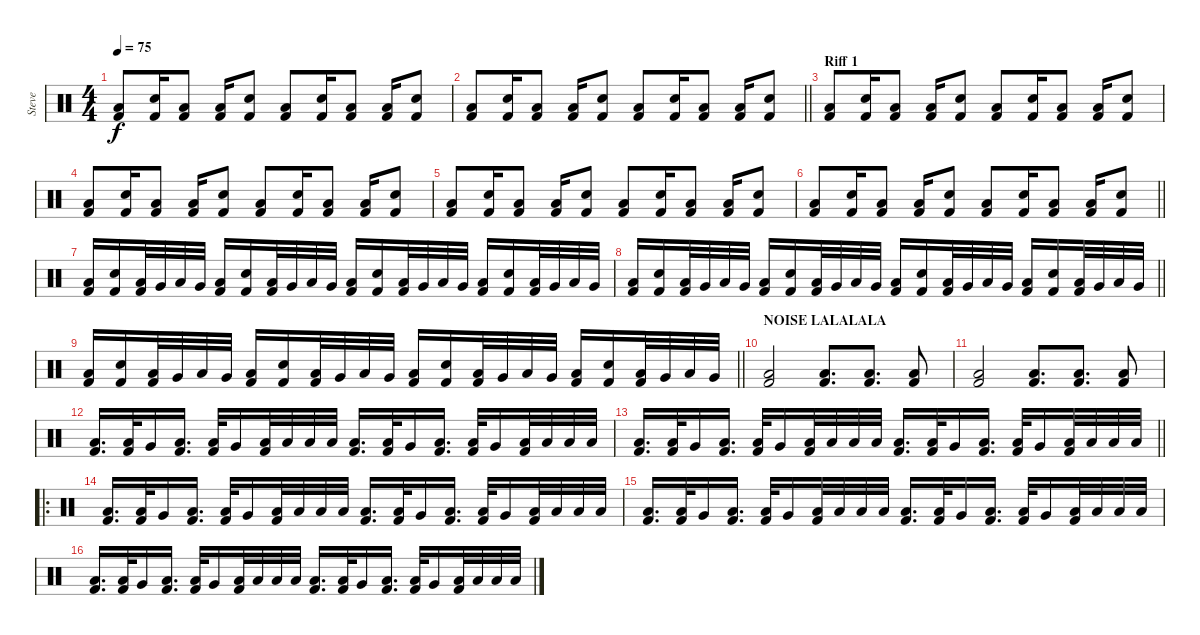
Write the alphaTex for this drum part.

\track ("Steve" "Steve") {instrument percussion}
\staff {score}
\articulation defaults
\ts (4 4)
\tempo 75
\clef neutral
\ks c
("Kick (hit) 2" "Low Floor Tom (hit)").8{dy f} ("Kick (hit) 2" "Snare (hit) 2").16 ("Kick (hit) 2" "Low Floor Tom (hit)").8 ("Kick (hit) 2" "Low Floor Tom (hit)").16 ("Kick (hit) 2" "Snare (hit) 2").8 ("Kick (hit) 2" "Low Floor Tom (hit)").8 ("Kick (hit) 2" "Snare (hit) 2").16 ("Kick (hit) 2" "Low Floor Tom (hit)").8 ("Kick (hit) 2" "Low Floor Tom (hit)").16 ("Kick (hit) 2" "Snare (hit) 2").8 |
\barLineRight lightlight
("Kick (hit) 2" "Low Floor Tom (hit)").8 ("Kick (hit) 2" "Snare (hit) 2").16 ("Kick (hit) 2" "Low Floor Tom (hit)").8 ("Kick (hit) 2" "Low Floor Tom (hit)").16 ("Kick (hit) 2" "Snare (hit) 2").8 ("Kick (hit) 2" "Low Floor Tom (hit)").8 ("Kick (hit) 2" "Snare (hit) 2").16 ("Kick (hit) 2" "Low Floor Tom (hit)").8 ("Kick (hit) 2" "Low Floor Tom (hit)").16 ("Kick (hit) 2" "Snare (hit) 2").8 |
\section ("" "Riff 1")
("Kick (hit) 2" "Low Floor Tom (hit)").8 ("Kick (hit) 2" "Snare (hit) 2").16 ("Kick (hit) 2" "Low Floor Tom (hit)").8 ("Kick (hit) 2" "Low Floor Tom (hit)").16 ("Kick (hit) 2" "Snare (hit) 2").8 ("Kick (hit) 2" "Low Floor Tom (hit)").8 ("Kick (hit) 2" "Snare (hit) 2").16 ("Kick (hit) 2" "Low Floor Tom (hit)").8 ("Kick (hit) 2" "Low Floor Tom (hit)").16 ("Kick (hit) 2" "Snare (hit) 2").8 |
("Kick (hit) 2" "Low Floor Tom (hit)").8 ("Kick (hit) 2" "Snare (hit) 2").16 ("Kick (hit) 2" "Low Floor Tom (hit)").8 ("Kick (hit) 2" "Low Floor Tom (hit)").16 ("Kick (hit) 2" "Snare (hit) 2").8 ("Kick (hit) 2" "Low Floor Tom (hit)").8 ("Kick (hit) 2" "Snare (hit) 2").16 ("Kick (hit) 2" "Low Floor Tom (hit)").8 ("Kick (hit) 2" "Low Floor Tom (hit)").16 ("Kick (hit) 2" "Snare (hit) 2").8 |
("Kick (hit) 2" "Low Floor Tom (hit)").8 ("Kick (hit) 2" "Snare (hit) 2").16 ("Kick (hit) 2" "Low Floor Tom (hit)").8 ("Kick (hit) 2" "Low Floor Tom (hit)").16 ("Kick (hit) 2" "Snare (hit) 2").8 ("Kick (hit) 2" "Low Floor Tom (hit)").8 ("Kick (hit) 2" "Snare (hit) 2").16 ("Kick (hit) 2" "Low Floor Tom (hit)").8 ("Kick (hit) 2" "Low Floor Tom (hit)").16 ("Kick (hit) 2" "Snare (hit) 2").8 |
\barLineRight lightlight
("Kick (hit) 2" "Low Floor Tom (hit)").8 ("Kick (hit) 2" "Snare (hit) 2").16 ("Kick (hit) 2" "Low Floor Tom (hit)").8 ("Kick (hit) 2" "Low Floor Tom (hit)").16 ("Kick (hit) 2" "Snare (hit) 2").8 ("Kick (hit) 2" "Low Floor Tom (hit)").8 ("Kick (hit) 2" "Snare (hit) 2").16 ("Kick (hit) 2" "Low Floor Tom (hit)").8 ("Kick (hit) 2" "Low Floor Tom (hit)").16 ("Kick (hit) 2" "Snare (hit) 2").8 |
("Kick (hit) 2" "Low Floor Tom (hit)").16 ("Kick (hit) 2" "Snare (hit) 2").16 ("Kick (hit) 2" "Low Tom (hit)").32 "Very Low Tom (hit)".32 "Low Floor Tom (hit)".32 "Very Low Tom (hit)".32 ("Kick (hit) 2" "Low Floor Tom (hit)").16 ("Kick (hit) 2" "Snare (hit) 2").16 ("Kick (hit) 2" "Low Tom (hit)").32 "Very Low Tom (hit)".32 "Low Floor Tom (hit)".32 "Very Low Tom (hit)".32 ("Kick (hit) 2" "Low Floor Tom (hit)").16 ("Kick (hit) 2" "Snare (hit) 2").16 ("Kick (hit) 2" "Low Tom (hit)").32 "Very Low Tom (hit)".32 "Low Floor Tom (hit)".32 "Very Low Tom (hit)".32 ("Kick (hit) 2" "Low Floor Tom (hit)").16 ("Kick (hit) 2" "Snare (hit) 2").16 ("Kick (hit) 2" "Low Tom (hit)").32 "Very Low Tom (hit)".32 "Low Floor Tom (hit)".32 "Very Low Tom (hit)".32 |
\barLineRight lightlight
("Kick (hit) 2" "Low Floor Tom (hit)").16 ("Kick (hit) 2" "Snare (hit) 2").16 ("Kick (hit) 2" "Low Tom (hit)").32 "Very Low Tom (hit)".32 "Low Floor Tom (hit)".32 "Very Low Tom (hit)".32 ("Kick (hit) 2" "Low Floor Tom (hit)").16 ("Kick (hit) 2" "Snare (hit) 2").16 ("Kick (hit) 2" "Low Tom (hit)").32 "Very Low Tom (hit)".32 "Low Floor Tom (hit)".32 "Very Low Tom (hit)".32 ("Kick (hit) 2" "Low Floor Tom (hit)").16 ("Kick (hit) 2" "Snare (hit) 2").16 ("Kick (hit) 2" "Low Tom (hit)").32 "Very Low Tom (hit)".32 "Low Floor Tom (hit)".32 "Very Low Tom (hit)".32 ("Kick (hit) 2" "Low Floor Tom (hit)").16 ("Kick (hit) 2" "Snare (hit) 2").16 ("Kick (hit) 2" "Low Tom (hit)").32 "Very Low Tom (hit)".32 "Low Floor Tom (hit)".32 "Very Low Tom (hit)".32 |
\barLineRight lightlight
("Kick (hit) 2" "Low Floor Tom (hit)").16 ("Kick (hit) 2" "Snare (hit) 2").16 ("Kick (hit) 2" "Low Tom (hit)").32 "Very Low Tom (hit)".32 "Low Floor Tom (hit)".32 "Very Low Tom (hit)".32 ("Kick (hit) 2" "Low Floor Tom (hit)").16 ("Kick (hit) 2" "Snare (hit) 2").16 ("Kick (hit) 2" "Low Tom (hit)").32 "Very Low Tom (hit)".32 "Low Floor Tom (hit)".32 "Very Low Tom (hit)".32 ("Kick (hit) 2" "Low Floor Tom (hit)").16 ("Kick (hit) 2" "Snare (hit) 2").16 ("Kick (hit) 2" "Low Tom (hit)").32 "Very Low Tom (hit)".32 "Low Floor Tom (hit)".32 "Very Low Tom (hit)".32 ("Kick (hit) 2" "Low Floor Tom (hit)").16 ("Kick (hit) 2" "Snare (hit) 2").16 ("Kick (hit) 2" "Low Tom (hit)").32 "Very Low Tom (hit)".32 "Low Floor Tom (hit)".32 "Very Low Tom (hit)".32 |
\section ("" "NOISE LALALALA")
("Kick (hit) 2" "Low Floor Tom (hit)").2 ("Kick (hit) 2" "Low Floor Tom (hit)").8{d} ("Kick (hit) 2" "Low Floor Tom (hit)").8{d} ("Kick (hit) 2" "Low Floor Tom (hit)").8 |
("Kick (hit) 2" "Low Floor Tom (hit)").2 ("Kick (hit) 2" "Low Floor Tom (hit)").8{d} ("Kick (hit) 2" "Low Floor Tom (hit)").8{d} ("Kick (hit) 2" "Low Floor Tom (hit)").8 |
("Kick (hit) 2" "Low Floor Tom (hit)").16{d} ("Kick (hit) 2" "Low Tom (hit)").32 "Very Low Tom (hit)".16 ("Kick (hit) 2" "Low Floor Tom (hit)").16{d} ("Kick (hit) 2" "Low Tom (hit)").32 "Very Low Tom (hit)".16 ("Kick (hit) 2" "Low Floor Tom (hit)").32 "Low Floor Tom (hit)".32 "Low Floor Tom (hit)".32 "Low Floor Tom (hit)".32 ("Kick (hit) 2" "Low Floor Tom (hit)").16{d} ("Kick (hit) 2" "Low Tom (hit)").32 "Very Low Tom (hit)".16 ("Kick (hit) 2" "Low Floor Tom (hit)").16{d} ("Kick (hit) 2" "Low Tom (hit)").32 "Very Low Tom (hit)".16 ("Kick (hit) 2" "Low Floor Tom (hit)").32 "Low Floor Tom (hit)".32 "Low Floor Tom (hit)".32 "Low Floor Tom (hit)".32 |
\barLineRight lightlight
("Kick (hit) 2" "Low Floor Tom (hit)").16{d} ("Kick (hit) 2" "Low Tom (hit)").32 "Very Low Tom (hit)".16 ("Kick (hit) 2" "Low Floor Tom (hit)").16{d} ("Kick (hit) 2" "Low Tom (hit)").32 "Very Low Tom (hit)".16 ("Kick (hit) 2" "Low Floor Tom (hit)").32 "Low Floor Tom (hit)".32 "Low Floor Tom (hit)".32 "Low Floor Tom (hit)".32 ("Kick (hit) 2" "Low Floor Tom (hit)").16{d} ("Kick (hit) 2" "Low Tom (hit)").32 "Very Low Tom (hit)".16 ("Kick (hit) 2" "Low Floor Tom (hit)").16{d} ("Kick (hit) 2" "Low Tom (hit)").32 "Very Low Tom (hit)".16 ("Kick (hit) 2" "Low Floor Tom (hit)").32 "Low Floor Tom (hit)".32 "Low Floor Tom (hit)".32 "Low Floor Tom (hit)".32 |
\ro
("Kick (hit) 2" "Low Floor Tom (hit)").16{d} ("Kick (hit) 2" "Low Tom (hit)").32 "Very Low Tom (hit)".16 ("Kick (hit) 2" "Low Floor Tom (hit)").16{d} ("Kick (hit) 2" "Low Tom (hit)").32 "Very Low Tom (hit)".16 ("Kick (hit) 2" "Low Floor Tom (hit)").32 "Low Floor Tom (hit)".32 "Low Floor Tom (hit)".32 "Low Floor Tom (hit)".32 ("Kick (hit) 2" "Low Floor Tom (hit)").16{d} ("Kick (hit) 2" "Low Tom (hit)").32 "Very Low Tom (hit)".16 ("Kick (hit) 2" "Low Floor Tom (hit)").16{d} ("Kick (hit) 2" "Low Tom (hit)").32 "Very Low Tom (hit)".16 ("Kick (hit) 2" "Low Floor Tom (hit)").32 "Low Floor Tom (hit)".32 "Low Floor Tom (hit)".32 "Low Floor Tom (hit)".32 |
("Kick (hit) 2" "Low Floor Tom (hit)").16{d} ("Kick (hit) 2" "Low Tom (hit)").32 "Very Low Tom (hit)".16 ("Kick (hit) 2" "Low Floor Tom (hit)").16{d} ("Kick (hit) 2" "Low Tom (hit)").32 "Very Low Tom (hit)".16 ("Kick (hit) 2" "Low Floor Tom (hit)").32 "Low Floor Tom (hit)".32 "Low Floor Tom (hit)".32 "Low Floor Tom (hit)".32 ("Kick (hit) 2" "Low Floor Tom (hit)").16{d} ("Kick (hit) 2" "Low Tom (hit)").32 "Very Low Tom (hit)".16 ("Kick (hit) 2" "Low Floor Tom (hit)").16{d} ("Kick (hit) 2" "Low Tom (hit)").32 "Very Low Tom (hit)".16 ("Kick (hit) 2" "Low Floor Tom (hit)").32 "Low Floor Tom (hit)".32 "Low Floor Tom (hit)".32 "Low Floor Tom (hit)".32 |
("Kick (hit) 2" "Low Floor Tom (hit)").16{d} ("Kick (hit) 2" "Low Tom (hit)").32 "Very Low Tom (hit)".16 ("Kick (hit) 2" "Low Floor Tom (hit)").16{d} ("Kick (hit) 2" "Low Tom (hit)").32 "Very Low Tom (hit)".16 ("Kick (hit) 2" "Low Floor Tom (hit)").32 "Low Floor Tom (hit)".32 "Low Floor Tom (hit)".32 "Low Floor Tom (hit)".32 ("Kick (hit) 2" "Low Floor Tom (hit)").16{d} ("Kick (hit) 2" "Low Tom (hit)").32 "Very Low Tom (hit)".16 ("Kick (hit) 2" "Low Floor Tom (hit)").16{d} ("Kick (hit) 2" "Low Tom (hit)").32 "Very Low Tom (hit)".16 ("Kick (hit) 2" "Low Floor Tom (hit)").32 "Low Floor Tom (hit)".32 "Low Floor Tom (hit)".32 "Low Floor Tom (hit)".32
